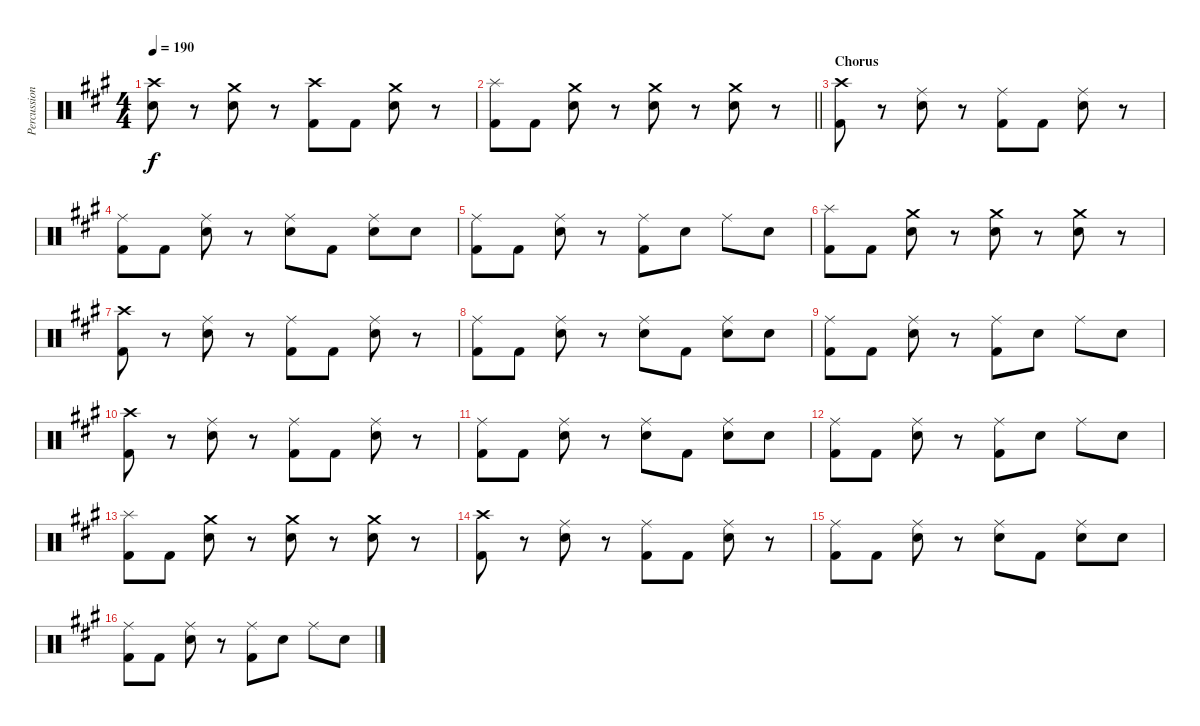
\track ("Percussion" "Percussion") {instrument percussion}
\staff {score}
\articulation defaults
\ts (4 4)
\tempo 190
\clef neutral
\ks a
("Crash high (hit)" "Snare (hit) 2").8{dy f} r.8 ("Crash medium (hit)" "Snare (hit) 2").8 r.8 ("Crash high (hit)" "Kick (hit) 2").8 "Kick (hit) 2".8 ("Crash medium (hit)" "Snare (hit) 2").8 r.8 |
\barLineRight lightlight
("Splash (hit)" "Kick (hit) 2").8 "Kick (hit) 2".8 ("Crash medium (hit)" "Snare (hit) 2").8 r.8 ("Crash medium (hit)" "Snare (hit) 2").8 r.8 ("Crash medium (hit)" "Snare (hit) 2").8 r.8 |
\section ("" "Chorus")
("Crash high (hit)" "Kick (hit) 2").8 r.8 ("Ride (middle)" "Snare (hit) 2").8 r.8 ("Ride (middle)" "Kick (hit) 2").8 "Kick (hit) 2".8 ("Ride (middle)" "Snare (hit) 2").8 r.8 |
("Ride (middle)" "Kick (hit) 2").8 "Kick (hit) 2".8 ("Ride (middle)" "Snare (hit) 2").8 r.8 ("Ride (middle)" "Snare (hit) 2").8 "Kick (hit) 2".8 ("Ride (middle)" "Snare (hit) 2").8 "Snare (hit) 2".8 |
("Ride (middle)" "Kick (hit) 2").8 "Kick (hit) 2".8 ("Ride (middle)" "Snare (hit) 2").8 r.8 ("Ride (middle)" "Kick (hit) 2").8 "Snare (hit) 2".8 "Ride (middle)".8 "Snare (hit) 2".8 |
("Splash (hit)" "Kick (hit) 2").8 "Kick (hit) 2".8 ("Crash medium (hit)" "Snare (hit) 2").8 r.8 ("Crash medium (hit)" "Snare (hit) 2").8 r.8 ("Crash medium (hit)" "Snare (hit) 2").8 r.8 |
("Crash high (hit)" "Kick (hit) 2").8 r.8 ("Ride (middle)" "Snare (hit) 2").8 r.8 ("Ride (middle)" "Kick (hit) 2").8 "Kick (hit) 2".8 ("Ride (middle)" "Snare (hit) 2").8 r.8 |
("Ride (middle)" "Kick (hit) 2").8 "Kick (hit) 2".8 ("Ride (middle)" "Snare (hit) 2").8 r.8 ("Ride (middle)" "Snare (hit) 2").8 "Kick (hit) 2".8 ("Ride (middle)" "Snare (hit) 2").8 "Snare (hit) 2".8 |
("Ride (middle)" "Kick (hit) 2").8 "Kick (hit) 2".8 ("Ride (middle)" "Snare (hit) 2").8 r.8 ("Ride (middle)" "Kick (hit) 2").8 "Snare (hit) 2".8 "Ride (middle)".8 "Snare (hit) 2".8 |
("Crash high (hit)" "Kick (hit) 2").8 r.8 ("Ride (middle)" "Snare (hit) 2").8 r.8 ("Ride (middle)" "Kick (hit) 2").8 "Kick (hit) 2".8 ("Ride (middle)" "Snare (hit) 2").8 r.8 |
("Ride (middle)" "Kick (hit) 2").8 "Kick (hit) 2".8 ("Ride (middle)" "Snare (hit) 2").8 r.8 ("Ride (middle)" "Snare (hit) 2").8 "Kick (hit) 2".8 ("Ride (middle)" "Snare (hit) 2").8 "Snare (hit) 2".8 |
("Ride (middle)" "Kick (hit) 2").8 "Kick (hit) 2".8 ("Ride (middle)" "Snare (hit) 2").8 r.8 ("Ride (middle)" "Kick (hit) 2").8 "Snare (hit) 2".8 "Ride (middle)".8 "Snare (hit) 2".8 |
("Splash (hit)" "Kick (hit) 2").8 "Kick (hit) 2".8 ("Crash medium (hit)" "Snare (hit) 2").8 r.8 ("Crash medium (hit)" "Snare (hit) 2").8 r.8 ("Crash medium (hit)" "Snare (hit) 2").8 r.8 |
("Crash high (hit)" "Kick (hit) 2").8 r.8 ("Ride (middle)" "Snare (hit) 2").8 r.8 ("Ride (middle)" "Kick (hit) 2").8 "Kick (hit) 2".8 ("Ride (middle)" "Snare (hit) 2").8 r.8 |
("Ride (middle)" "Kick (hit) 2").8 "Kick (hit) 2".8 ("Ride (middle)" "Snare (hit) 2").8 r.8 ("Ride (middle)" "Snare (hit) 2").8 "Kick (hit) 2".8 ("Ride (middle)" "Snare (hit) 2").8 "Snare (hit) 2".8 |
("Ride (middle)" "Kick (hit) 2").8 "Kick (hit) 2".8 ("Ride (middle)" "Snare (hit) 2").8 r.8 ("Ride (middle)" "Kick (hit) 2").8 "Snare (hit) 2".8 "Ride (middle)".8 "Snare (hit) 2".8
